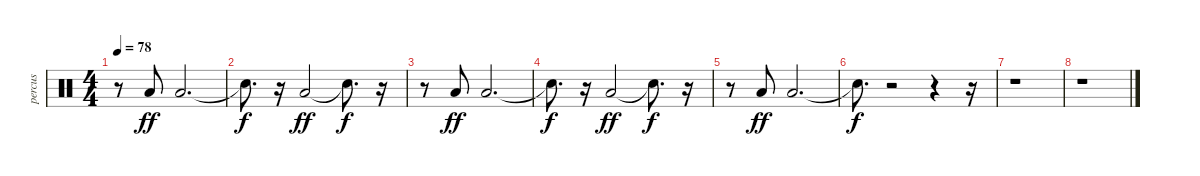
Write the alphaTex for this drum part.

\track ("percus" "percus") {instrument percussion}
\staff {score}
\articulation defaults
\ts (4 4)
\tempo 78
\clef neutral
\ks c
r.8{dy f} "Low Floor Tom (hit)".8{dy ff} "Low Floor Tom (hit)".2{d} |
"Snare (hit)"{t}.8{d dy f} r.16 "Low Floor Tom (hit)".2{dy ff} "Snare (hit)"{t}.8{d dy f} r.16 |
r.8 "Low Floor Tom (hit)".8{dy ff} "Low Floor Tom (hit)".2{d} |
"Snare (hit)"{t}.8{d dy f} r.16 "Low Floor Tom (hit)".2{dy ff} "Snare (hit)"{t}.8{d dy f} r.16 |
r.8 "Low Floor Tom (hit)".8{dy ff} "Low Floor Tom (hit)".2{d} |
"Snare (hit)"{t}.8{d dy f} r.2 r.4 r.16 |
r.1 |
r.1
